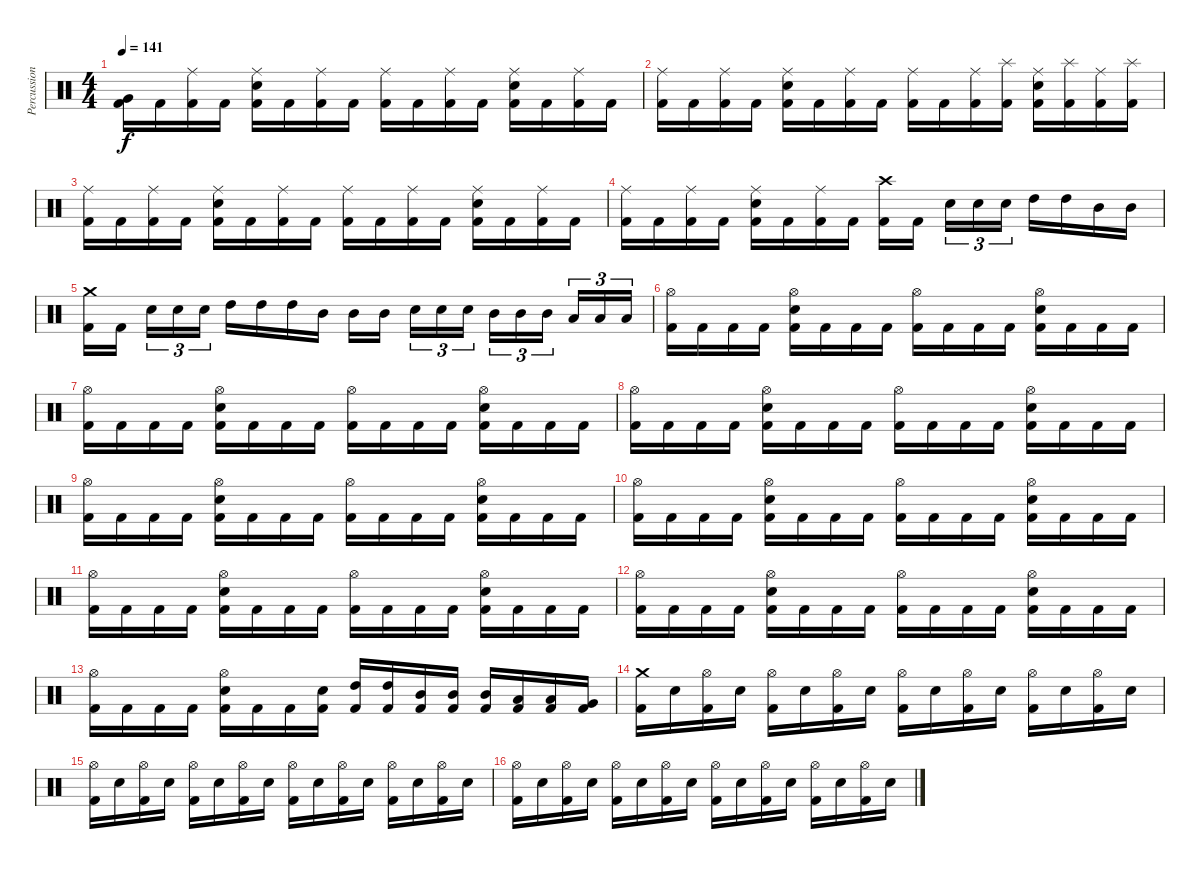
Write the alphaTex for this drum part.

\track ("Percussion" "Percussion") {instrument percussion}
\staff {score}
\articulation defaults
\ts (4 4)
\tempo 141
\clef neutral
\ks c
("Kick (hit) 2" "Very Low Tom (hit)").16{dy f} "Kick (hit) 2".16 ("Kick (hit) 2" "Ride (middle)").16 "Kick (hit) 2".16 ("Kick (hit) 2" "Electric Snare (hit)" "Ride (middle)").16 "Kick (hit) 2".16 ("Kick (hit) 2" "Ride (middle)").16 "Kick (hit) 2".16 ("Kick (hit) 2" "Ride (middle)").16 "Kick (hit) 2".16 ("Kick (hit) 2" "Ride (middle)").16 "Kick (hit) 2".16 ("Kick (hit) 2" "Electric Snare (hit)" "Ride (middle)").16 "Kick (hit) 2".16 ("Kick (hit) 2" "Ride (middle)").16 "Kick (hit) 2".16 |
("Kick (hit) 2" "Ride (middle)").16 "Kick (hit) 2".16 ("Kick (hit) 2" "Ride (middle)").16 "Kick (hit) 2".16 ("Kick (hit) 2" "Electric Snare (hit)" "Ride (middle)").16 "Kick (hit) 2".16 ("Kick (hit) 2" "Ride (middle)").16 "Kick (hit) 2".16 ("Kick (hit) 2" "Ride (middle)").16 "Kick (hit) 2".16 ("Kick (hit) 2" "Ride (middle)").16 ("Kick (hit) 2" "Splash (hit)").16 ("Kick (hit) 2" "Electric Snare (hit)" "Ride (middle)").16 ("Kick (hit) 2" "Splash (hit)").16 ("Kick (hit) 2" "Ride (middle)").16 ("Kick (hit) 2" "Splash (hit)").16 |
("Kick (hit) 2" "Ride (middle)").16 "Kick (hit) 2".16 ("Kick (hit) 2" "Ride (middle)").16 "Kick (hit) 2".16 ("Kick (hit) 2" "Electric Snare (hit)" "Ride (middle)").16 "Kick (hit) 2".16 ("Kick (hit) 2" "Ride (middle)").16 "Kick (hit) 2".16 ("Kick (hit) 2" "Ride (middle)").16 "Kick (hit) 2".16 ("Kick (hit) 2" "Ride (middle)").16 "Kick (hit) 2".16 ("Kick (hit) 2" "Electric Snare (hit)" "Ride (middle)").16 "Kick (hit) 2".16 ("Kick (hit) 2" "Ride (middle)").16 "Kick (hit) 2".16 |
("Kick (hit) 2" "Ride (middle)").16 "Kick (hit) 2".16 ("Kick (hit) 2" "Ride (middle)").16 "Kick (hit) 2".16 ("Kick (hit) 2" "Electric Snare (hit)" "Ride (middle)").16 "Kick (hit) 2".16 ("Kick (hit) 2" "Ride (middle)").16 "Kick (hit) 2".16 ("Kick (hit) 2" "Crash high (hit)").16 "Kick (hit) 2".16 "Electric Snare (hit)".16{tu (3 2)} "Electric Snare (hit)".16{tu (3 2)} "Electric Snare (hit)".16{tu (3 2)} "High Tom (hit)".16 "High Tom (hit)".16 "Mid Tom (hit)".16 "Mid Tom (hit)".16 |
("Kick (hit) 2" "Crash medium (hit)").16 "Kick (hit) 2".16 "Electric Snare (hit)".16{tu (3 2)} "Electric Snare (hit)".16{tu (3 2)} "Electric Snare (hit)".16{tu (3 2)} "High Tom (hit)".16 "High Tom (hit)".16 "High Tom (hit)".16 "Mid Tom (hit)".16 "Mid Tom (hit)".16 "Mid Tom (hit)".16 "Electric Snare (hit)".16{tu (3 2)} "Electric Snare (hit)".16{tu (3 2)} "Electric Snare (hit)".16{tu (3 2)} "Mid Tom (hit)".16{tu (3 2)} "Mid Tom (hit)".16{tu (3 2)} "Mid Tom (hit)".16{tu (3 2)} "Low Tom (hit)".16{tu (3 2)} "Low Tom (hit)".16{tu (3 2)} "Low Tom (hit)".16{tu (3 2)} |
("Kick (hit) 2" "Hi-Hat (open)").16 "Kick (hit) 2".16 "Kick (hit) 2".16 "Kick (hit) 2".16 ("Kick (hit) 2" "Electric Snare (hit)" "Hi-Hat (open)").16 "Kick (hit) 2".16 "Kick (hit) 2".16 "Kick (hit) 2".16 ("Kick (hit) 2" "Hi-Hat (open)").16 "Kick (hit) 2".16 "Kick (hit) 2".16 "Kick (hit) 2".16 ("Kick (hit) 2" "Electric Snare (hit)" "Hi-Hat (open)").16 "Kick (hit) 2".16 "Kick (hit) 2".16 "Kick (hit) 2".16 |
("Kick (hit) 2" "Hi-Hat (open)").16 "Kick (hit) 2".16 "Kick (hit) 2".16 "Kick (hit) 2".16 ("Kick (hit) 2" "Electric Snare (hit)" "Hi-Hat (open)").16 "Kick (hit) 2".16 "Kick (hit) 2".16 "Kick (hit) 2".16 ("Kick (hit) 2" "Hi-Hat (open)").16 "Kick (hit) 2".16 "Kick (hit) 2".16 "Kick (hit) 2".16 ("Kick (hit) 2" "Electric Snare (hit)" "Hi-Hat (open)").16 "Kick (hit) 2".16 "Kick (hit) 2".16 "Kick (hit) 2".16 |
("Kick (hit) 2" "Hi-Hat (open)").16 "Kick (hit) 2".16 "Kick (hit) 2".16 "Kick (hit) 2".16 ("Kick (hit) 2" "Electric Snare (hit)" "Hi-Hat (open)").16 "Kick (hit) 2".16 "Kick (hit) 2".16 "Kick (hit) 2".16 ("Kick (hit) 2" "Hi-Hat (open)").16 "Kick (hit) 2".16 "Kick (hit) 2".16 "Kick (hit) 2".16 ("Kick (hit) 2" "Electric Snare (hit)" "Hi-Hat (open)").16 "Kick (hit) 2".16 "Kick (hit) 2".16 "Kick (hit) 2".16 |
("Kick (hit) 2" "Hi-Hat (open)").16 "Kick (hit) 2".16 "Kick (hit) 2".16 "Kick (hit) 2".16 ("Kick (hit) 2" "Electric Snare (hit)" "Hi-Hat (open)").16 "Kick (hit) 2".16 "Kick (hit) 2".16 "Kick (hit) 2".16 ("Kick (hit) 2" "Hi-Hat (open)").16 "Kick (hit) 2".16 "Kick (hit) 2".16 "Kick (hit) 2".16 ("Kick (hit) 2" "Electric Snare (hit)" "Hi-Hat (open)").16 "Kick (hit) 2".16 "Kick (hit) 2".16 "Kick (hit) 2".16 |
("Kick (hit) 2" "Hi-Hat (open)").16 "Kick (hit) 2".16 "Kick (hit) 2".16 "Kick (hit) 2".16 ("Kick (hit) 2" "Electric Snare (hit)" "Hi-Hat (open)").16 "Kick (hit) 2".16 "Kick (hit) 2".16 "Kick (hit) 2".16 ("Kick (hit) 2" "Hi-Hat (open)").16 "Kick (hit) 2".16 "Kick (hit) 2".16 "Kick (hit) 2".16 ("Kick (hit) 2" "Electric Snare (hit)" "Hi-Hat (open)").16 "Kick (hit) 2".16 "Kick (hit) 2".16 "Kick (hit) 2".16 |
("Kick (hit) 2" "Hi-Hat (open)").16 "Kick (hit) 2".16 "Kick (hit) 2".16 "Kick (hit) 2".16 ("Kick (hit) 2" "Electric Snare (hit)" "Hi-Hat (open)").16 "Kick (hit) 2".16 "Kick (hit) 2".16 "Kick (hit) 2".16 ("Kick (hit) 2" "Hi-Hat (open)").16 "Kick (hit) 2".16 "Kick (hit) 2".16 "Kick (hit) 2".16 ("Kick (hit) 2" "Electric Snare (hit)" "Hi-Hat (open)").16 "Kick (hit) 2".16 "Kick (hit) 2".16 "Kick (hit) 2".16 |
("Kick (hit) 2" "Hi-Hat (open)").16 "Kick (hit) 2".16 "Kick (hit) 2".16 "Kick (hit) 2".16 ("Kick (hit) 2" "Electric Snare (hit)" "Hi-Hat (open)").16 "Kick (hit) 2".16 "Kick (hit) 2".16 "Kick (hit) 2".16 ("Kick (hit) 2" "Hi-Hat (open)").16 "Kick (hit) 2".16 "Kick (hit) 2".16 "Kick (hit) 2".16 ("Kick (hit) 2" "Electric Snare (hit)" "Hi-Hat (open)").16 "Kick (hit) 2".16 "Kick (hit) 2".16 "Kick (hit) 2".16 |
("Kick (hit) 2" "Hi-Hat (open)").16 "Kick (hit) 2".16 "Kick (hit) 2".16 "Kick (hit) 2".16 ("Kick (hit) 2" "Electric Snare (hit)" "Hi-Hat (open)").16 "Kick (hit) 2".16 "Kick (hit) 2".16 ("Kick (hit) 2" "Electric Snare (hit)").16 ("Kick (hit) 2" "High Tom (hit)").16 ("Kick (hit) 2" "High Tom (hit)").16 ("Kick (hit) 2" "Mid Tom (hit)").16 ("Kick (hit) 2" "Mid Tom (hit)").16 ("Kick (hit) 2" "Mid Tom (hit)").16 ("Kick (hit) 2" "Low Tom (hit)").16 ("Kick (hit) 2" "Low Tom (hit)").16 ("Kick (hit) 2" "Very Low Tom (hit)").16 |
("Kick (hit) 2" "Crash medium (hit)").16 "Electric Snare (hit)".16 ("Kick (hit) 2" "Hi-Hat (open)").16 "Electric Snare (hit)".16 ("Kick (hit) 2" "Hi-Hat (open)").16 "Electric Snare (hit)".16 ("Kick (hit) 2" "Hi-Hat (open)").16 "Electric Snare (hit)".16 ("Kick (hit) 2" "Hi-Hat (open)").16 "Electric Snare (hit)".16 ("Kick (hit) 2" "Hi-Hat (open)").16 "Electric Snare (hit)".16 ("Kick (hit) 2" "Hi-Hat (open)").16 "Electric Snare (hit)".16 ("Kick (hit) 2" "Hi-Hat (open)").16 "Electric Snare (hit)".16 |
("Kick (hit) 2" "Hi-Hat (open)").16 "Electric Snare (hit)".16 ("Kick (hit) 2" "Hi-Hat (open)").16 "Electric Snare (hit)".16 ("Kick (hit) 2" "Hi-Hat (open)").16 "Electric Snare (hit)".16 ("Kick (hit) 2" "Hi-Hat (open)").16 "Electric Snare (hit)".16 ("Kick (hit) 2" "Hi-Hat (open)").16 "Electric Snare (hit)".16 ("Kick (hit) 2" "Hi-Hat (open)").16 "Electric Snare (hit)".16 ("Kick (hit) 2" "Hi-Hat (open)").16 "Electric Snare (hit)".16 ("Kick (hit) 2" "Hi-Hat (open)").16 "Electric Snare (hit)".16 |
("Kick (hit) 2" "Hi-Hat (open)").16 "Electric Snare (hit)".16 ("Kick (hit) 2" "Hi-Hat (open)").16 "Electric Snare (hit)".16 ("Kick (hit) 2" "Hi-Hat (open)").16 "Electric Snare (hit)".16 ("Kick (hit) 2" "Hi-Hat (open)").16 "Electric Snare (hit)".16 ("Kick (hit) 2" "Hi-Hat (open)").16 "Electric Snare (hit)".16 ("Kick (hit) 2" "Hi-Hat (open)").16 "Electric Snare (hit)".16 ("Kick (hit) 2" "Hi-Hat (open)").16 "Electric Snare (hit)".16 ("Kick (hit) 2" "Hi-Hat (open)").16 "Electric Snare (hit)".16
